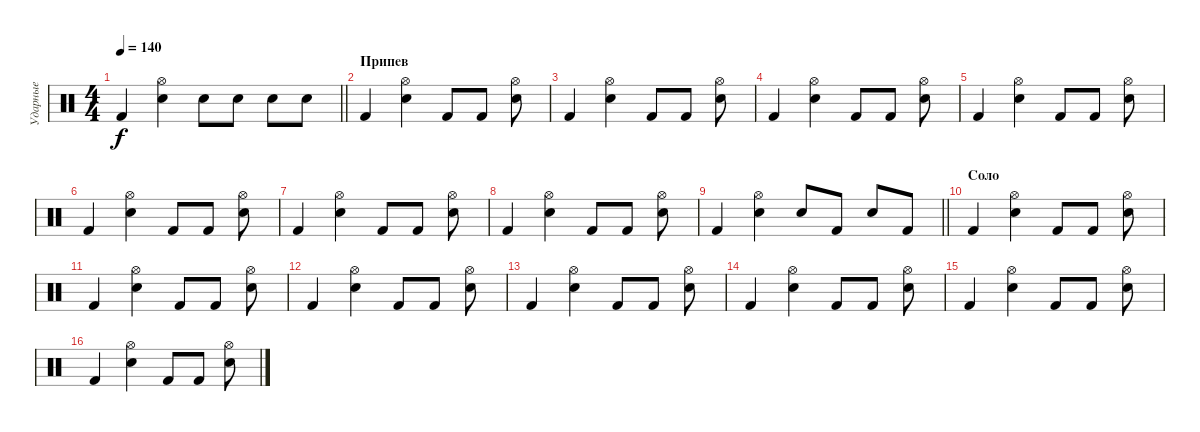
\track ("Ударные" "Ударные") {instrument percussion}
\staff {score}
\articulation defaults
\ts (4 4)
\tempo 140
\clef neutral
\barLineRight lightlight
\ks c "Kick (hit) 2".4{dy f}
("Electric Snare (hit)" "Hi-Hat (open)").4 "Electric Snare (hit)".8 "Electric Snare (hit)".8 "Electric Snare (hit)".8 "Electric Snare (hit)".8 |
\section ("" "Припев")
"Kick (hit) 2".4 ("Electric Snare (hit)" "Hi-Hat (open)").4 "Kick (hit) 2".8 "Kick (hit) 2".8 ("Electric Snare (hit)" "Hi-Hat (open)").8 |
"Kick (hit) 2".4 ("Electric Snare (hit)" "Hi-Hat (open)").4 "Kick (hit) 2".8 "Kick (hit) 2".8 ("Electric Snare (hit)" "Hi-Hat (open)").8 |
"Kick (hit) 2".4 ("Electric Snare (hit)" "Hi-Hat (open)").4 "Kick (hit) 2".8 "Kick (hit) 2".8 ("Electric Snare (hit)" "Hi-Hat (open)").8 |
"Kick (hit) 2".4 ("Electric Snare (hit)" "Hi-Hat (open)").4 "Kick (hit) 2".8 "Kick (hit) 2".8 ("Electric Snare (hit)" "Hi-Hat (open)").8 |
"Kick (hit) 2".4 ("Electric Snare (hit)" "Hi-Hat (open)").4 "Kick (hit) 2".8 "Kick (hit) 2".8 ("Electric Snare (hit)" "Hi-Hat (open)").8 |
"Kick (hit) 2".4 ("Electric Snare (hit)" "Hi-Hat (open)").4 "Kick (hit) 2".8 "Kick (hit) 2".8 ("Electric Snare (hit)" "Hi-Hat (open)").8 |
"Kick (hit) 2".4 ("Electric Snare (hit)" "Hi-Hat (open)").4 "Kick (hit) 2".8 "Kick (hit) 2".8 ("Electric Snare (hit)" "Hi-Hat (open)").8 |
\barLineRight lightlight "Kick (hit) 2".4
("Electric Snare (hit)" "Hi-Hat (open)").4 "Electric Snare (hit)".8 "Kick (hit) 2".8 "Electric Snare (hit)".8 "Kick (hit) 2".8 |
\section ("" "Соло")
"Kick (hit) 2".4 ("Electric Snare (hit)" "Hi-Hat (open)").4 "Kick (hit) 2".8 "Kick (hit) 2".8 ("Electric Snare (hit)" "Hi-Hat (open)").8 |
"Kick (hit) 2".4 ("Electric Snare (hit)" "Hi-Hat (open)").4 "Kick (hit) 2".8 "Kick (hit) 2".8 ("Electric Snare (hit)" "Hi-Hat (open)").8 |
"Kick (hit) 2".4 ("Electric Snare (hit)" "Hi-Hat (open)").4 "Kick (hit) 2".8 "Kick (hit) 2".8 ("Electric Snare (hit)" "Hi-Hat (open)").8 |
"Kick (hit) 2".4 ("Electric Snare (hit)" "Hi-Hat (open)").4 "Kick (hit) 2".8 "Kick (hit) 2".8 ("Electric Snare (hit)" "Hi-Hat (open)").8 |
"Kick (hit) 2".4 ("Electric Snare (hit)" "Hi-Hat (open)").4 "Kick (hit) 2".8 "Kick (hit) 2".8 ("Electric Snare (hit)" "Hi-Hat (open)").8 |
"Kick (hit) 2".4 ("Electric Snare (hit)" "Hi-Hat (open)").4 "Kick (hit) 2".8 "Kick (hit) 2".8 ("Electric Snare (hit)" "Hi-Hat (open)").8 |
"Kick (hit) 2".4 ("Electric Snare (hit)" "Hi-Hat (open)").4 "Kick (hit) 2".8 "Kick (hit) 2".8 ("Electric Snare (hit)" "Hi-Hat (open)").8
